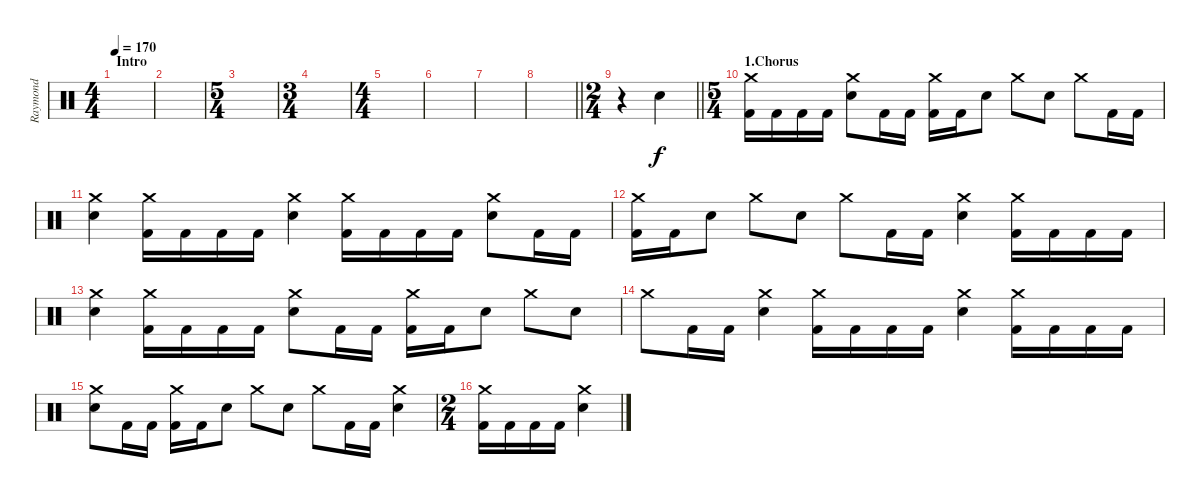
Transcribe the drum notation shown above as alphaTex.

\track ("Raymond" "Raymond") {instrument percussion}
\staff {score}
\articulation defaults
\ts (4 4)
\section ("" "Intro")
\tempo 170
\clef neutral
\ks c
|
|
\ts (5 4)
|
\ts (3 4)
|
\ts (4 4)
|
|
|
\barLineRight lightlight
|
\ts (2 4)
\section ("" "")
\barLineRight lightlight
r.4 "Electric Snare (hit)".4 |
\ts (5 4)
\section ("" "1.Chorus")
("Crash medium (hit)" "Kick (hit) 2").16 "Kick (hit) 2".16 "Kick (hit) 2".16 "Kick (hit) 2".16 ("Crash medium (hit)" "Electric Snare (hit)").8 "Kick (hit) 2".16 "Kick (hit) 2".16 ("Crash medium (hit)" "Kick (hit) 2").16 "Kick (hit) 2".16 "Electric Snare (hit)".8 "Crash medium (hit)".8 "Electric Snare (hit)".8 "Crash medium (hit)".8 "Kick (hit) 2".16 "Kick (hit) 2".16 |
("Crash medium (hit)" "Electric Snare (hit)").4 ("Crash medium (hit)" "Kick (hit) 2").16 "Kick (hit) 2".16 "Kick (hit) 2".16 "Kick (hit) 2".16 ("Crash medium (hit)" "Electric Snare (hit)").4 ("Crash medium (hit)" "Kick (hit) 2").16 "Kick (hit) 2".16 "Kick (hit) 2".16 "Kick (hit) 2".16 ("Crash medium (hit)" "Electric Snare (hit)").8 "Kick (hit) 2".16 "Kick (hit) 2".16 |
("Crash medium (hit)" "Kick (hit) 2").16 "Kick (hit) 2".16 "Electric Snare (hit)".8 "Crash medium (hit)".8 "Electric Snare (hit)".8 "Crash medium (hit)".8 "Kick (hit) 2".16 "Kick (hit) 2".16 ("Crash medium (hit)" "Electric Snare (hit)").4 ("Crash medium (hit)" "Kick (hit) 2").16 "Kick (hit) 2".16 "Kick (hit) 2".16 "Kick (hit) 2".16 |
("Crash medium (hit)" "Electric Snare (hit)").4 ("Crash medium (hit)" "Kick (hit) 2").16 "Kick (hit) 2".16 "Kick (hit) 2".16 "Kick (hit) 2".16 ("Crash medium (hit)" "Electric Snare (hit)").8 "Kick (hit) 2".16 "Kick (hit) 2".16 ("Crash medium (hit)" "Kick (hit) 2").16 "Kick (hit) 2".16 "Electric Snare (hit)".8 "Crash medium (hit)".8 "Electric Snare (hit)".8 |
"Crash medium (hit)".8 "Kick (hit) 2".16 "Kick (hit) 2".16 ("Crash medium (hit)" "Electric Snare (hit)").4 ("Crash medium (hit)" "Kick (hit) 2").16 "Kick (hit) 2".16 "Kick (hit) 2".16 "Kick (hit) 2".16 ("Crash medium (hit)" "Electric Snare (hit)").4 ("Crash medium (hit)" "Kick (hit) 2").16 "Kick (hit) 2".16 "Kick (hit) 2".16 "Kick (hit) 2".16 |
("Crash medium (hit)" "Electric Snare (hit)").8 "Kick (hit) 2".16 "Kick (hit) 2".16 ("Crash medium (hit)" "Kick (hit) 2").16 "Kick (hit) 2".16 "Electric Snare (hit)".8 "Crash medium (hit)".8 "Electric Snare (hit)".8 "Crash medium (hit)".8 "Kick (hit) 2".16 "Kick (hit) 2".16 ("Crash medium (hit)" "Electric Snare (hit)").4 |
\ts (2 4)
("Crash medium (hit)" "Kick (hit) 2").16 "Kick (hit) 2".16 "Kick (hit) 2".16 "Kick (hit) 2".16 ("Crash medium (hit)" "Electric Snare (hit)").4
